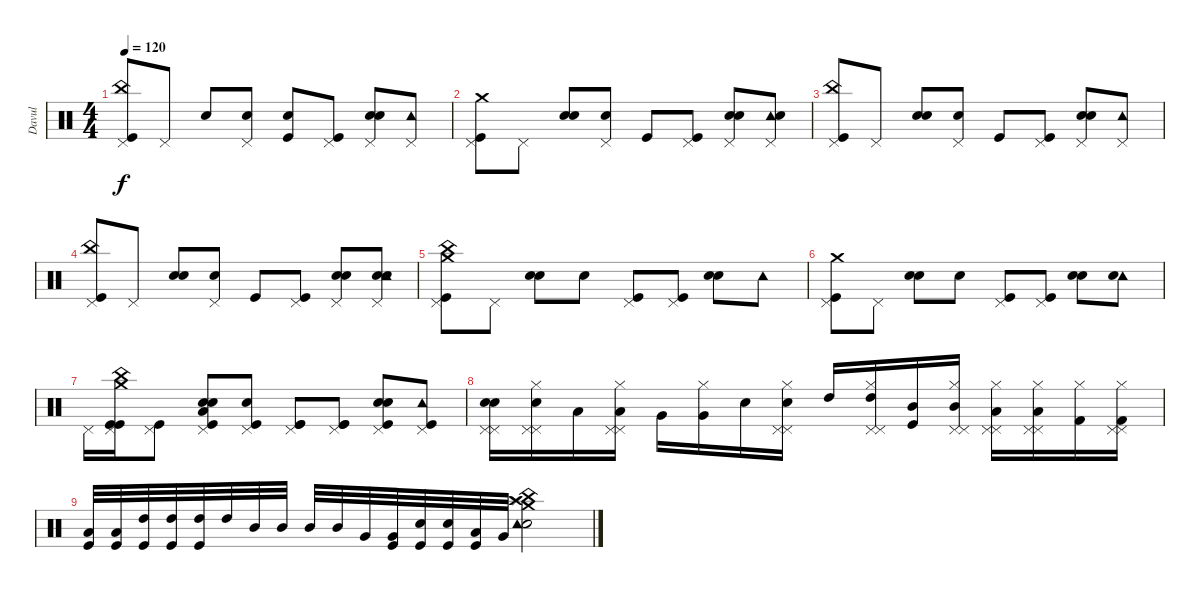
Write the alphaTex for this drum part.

\track ("Davul" "Davul") {instrument percussion}
\staff {score}
\articulation defaults
\ts (4 4)
\tempo 120
\clef neutral
\ks c
("Pedal Hi-Hat (hit)" "China (hit)" "Kick (hit)").8{dy f} "Pedal Hi-Hat (hit)".8 "Snare (hit) 2".8 ("Pedal Hi-Hat (hit)" "Hand Clap (hit)").8 ("Hand Clap (hit)" "Kick (hit)").8 ("Pedal Hi-Hat (hit)" "Kick (hit)").8 ("Pedal Hi-Hat (hit)" "Hand Clap (hit)" "Snare (hit) 2").8 ("Pedal Hi-Hat (hit)" "Tambourine (hit)").8 |
("Pedal Hi-Hat (hit)" "Crash medium (hit)" "Kick (hit)").8 "Pedal Hi-Hat (hit)".8 ("Hand Clap (hit)" "Snare (hit) 2").8 ("Pedal Hi-Hat (hit)" "Hand Clap (hit)").8 "Kick (hit)".8 ("Pedal Hi-Hat (hit)" "Kick (hit)").8 ("Pedal Hi-Hat (hit)" "Hand Clap (hit)" "Snare (hit) 2").8 ("Pedal Hi-Hat (hit)" "Tambourine (hit)" "Snare (hit) 2").8 |
("Pedal Hi-Hat (hit)" "China (hit)" "Kick (hit)").8 "Pedal Hi-Hat (hit)".8 ("Hand Clap (hit)" "Snare (hit) 2").8 ("Pedal Hi-Hat (hit)" "Hand Clap (hit)").8 "Kick (hit)".8 ("Pedal Hi-Hat (hit)" "Kick (hit)").8 ("Pedal Hi-Hat (hit)" "Hand Clap (hit)" "Snare (hit) 2").8 ("Pedal Hi-Hat (hit)" "Tambourine (hit)").8 |
("Pedal Hi-Hat (hit)" "China (hit)" "Kick (hit)").8 "Pedal Hi-Hat (hit)".8 ("Hand Clap (hit)" "Snare (hit) 2").8 ("Pedal Hi-Hat (hit)" "Hand Clap (hit)").8 "Kick (hit)".8 ("Pedal Hi-Hat (hit)" "Kick (hit)").8 ("Pedal Hi-Hat (hit)" "Hand Clap (hit)" "Snare (hit) 2").8 ("Pedal Hi-Hat (hit)" "Hand Clap (hit)" "Tambourine (hit)" "Snare (hit) 2").8 |
("Pedal Hi-Hat (hit)" "China (hit)" "Crash medium (hit)" "Kick (hit)").8 "Pedal Hi-Hat (hit)".8 ("Hand Clap (hit)" "Snare (hit) 2").8 "Hand Clap (hit)".8 ("Pedal Hi-Hat (hit)" "Kick (hit)").8 ("Pedal Hi-Hat (hit)" "Kick (hit)").8 ("Hand Clap (hit)" "Snare (hit) 2").8 "Tambourine (hit)".8 |
("Pedal Hi-Hat (hit)" "Crash medium (hit)" "Kick (hit)").8 "Pedal Hi-Hat (hit)".8 ("Hand Clap (hit)" "Snare (hit) 2").8 "Hand Clap (hit)".8 ("Pedal Hi-Hat (hit)" "Kick (hit)").8 ("Pedal Hi-Hat (hit)" "Kick (hit)").8 ("Hand Clap (hit)" "Snare (hit) 2").8 ("Tambourine (hit)" "Snare (hit) 2").8 |
"Pedal Hi-Hat (hit)".16 ("Pedal Hi-Hat (hit)" "Kick (hit)" "China (hit)" "Crash medium (hit)" "Kick (hit)").16 ("Pedal Hi-Hat (hit)" "Kick (hit)").8 ("Pedal Hi-Hat (hit)" "Kick (hit)" "Hand Clap (hit)" "Snare (hit) 2" "Low Floor Tom (hit)").8 ("Pedal Hi-Hat (hit)" "Kick (hit)" "Hand Clap (hit)").8 ("Pedal Hi-Hat (hit)" "Kick (hit)" "Kick (hit)").8 ("Pedal Hi-Hat (hit)" "Kick (hit)" "Kick (hit)").8 ("Pedal Hi-Hat (hit)" "Kick (hit)" "Hand Clap (hit)" "Snare (hit) 2").8 ("Pedal Hi-Hat (hit)" "Kick (hit)" "Tambourine (hit)").8 |
("Pedal Hi-Hat (hit)" "Electric Snare (hit)" "Snare (hit) 2" "Pedal Hi-Hat (hit)").16 ("Pedal Hi-Hat (hit)" "Electric Snare (hit)" "Hi-Hat (closed)" "Pedal Hi-Hat (hit)").16 "Low Floor Tom (hit)".16 ("Pedal Hi-Hat (hit)" "Low Floor Tom (hit)" "Hi-Hat (closed)" "Pedal Hi-Hat (hit)").16 "Very Low Tom (hit)".16 ("Very Low Tom (hit)" "Hi-Hat (closed)").16 "Snare (hit) 2".16 ("Pedal Hi-Hat (hit)" "Snare (hit) 2" "Hi-Hat (closed)" "Pedal Hi-Hat (hit)").16 "High Tom (hit)".16 ("Pedal Hi-Hat (hit)" "High Tom (hit)" "Hi-Hat (closed)" "Pedal Hi-Hat (hit)").16 ("Mid Tom (hit)" "Kick (hit)").16 ("Pedal Hi-Hat (hit)" "Mid Tom (hit)" "Hi-Hat (closed)" "Pedal Hi-Hat (hit)").16 ("Pedal Hi-Hat (hit)" "Low Tom (hit)" "Hi-Hat (closed)" "Pedal Hi-Hat (hit)").16 ("Pedal Hi-Hat (hit)" "Low Tom (hit)" "Hi-Hat (closed)" "Pedal Hi-Hat (hit)").16 ("Kick (hit) 2" "Hi-Hat (closed)").16 ("Pedal Hi-Hat (hit)" "Kick (hit) 2" "Hi-Hat (closed)" "Pedal Hi-Hat (hit)").16 |
("Low Floor Tom (hit)" "Kick (hit)").32 ("Low Floor Tom (hit)" "Kick (hit)").32 ("High Tom (hit)" "Kick (hit)").32 ("High Tom (hit)" "Kick (hit)").32 ("High Tom (hit)" "Kick (hit)").32 "High Tom (hit)".32 "Mid Tom (hit)".32 "Mid Tom (hit)".32 "Mid Tom (hit)".32 "Mid Tom (hit)".32 "Very Low Tom (hit)".32 ("Very Low Tom (hit)" "Kick (hit)").32 ("Snare (hit) 2" "Kick (hit)").32 ("Electric Snare (hit)" "Kick (hit)").32 ("Low Floor Tom (hit)" "Kick (hit)").32 "Very Low Tom (hit)".32 ("China (hit)" "Splash (hit)" "Electric Snare (hit)" "Tambourine (hit)" "Crash medium (hit)" "Crash high (hit)").2
